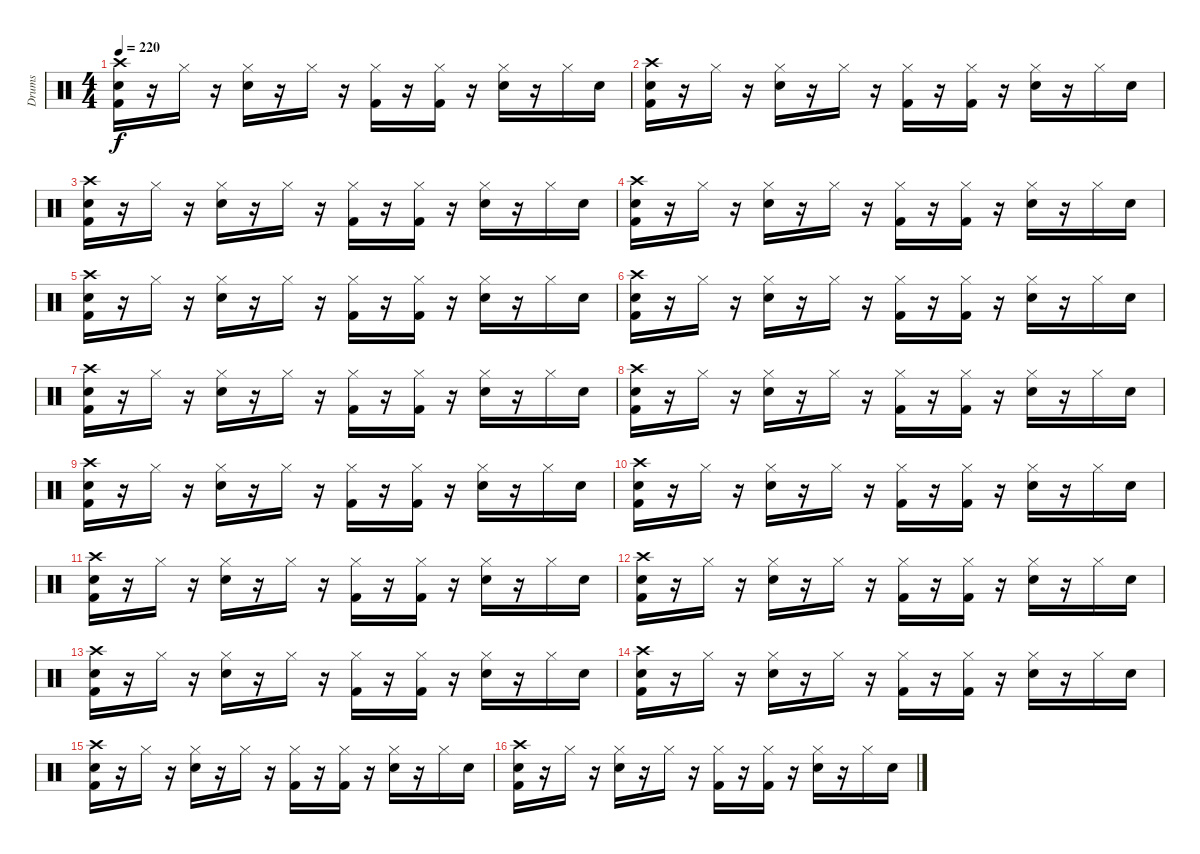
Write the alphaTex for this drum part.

\track ("Drums" "Drums") {instrument percussion}
\staff {score}
\articulation defaults
\ts (4 4)
\tempo 220
\clef neutral
\ks c
("Crash high (hit)" "Snare (hit) 2" "Kick (hit) 2").16{dy f} r.16 "Hi-Hat (closed)".16 r.16 ("Hi-Hat (closed)" "Snare (hit) 2").16 r.16 "Hi-Hat (closed)".16 r.16 ("Hi-Hat (closed)" "Kick (hit) 2").16 r.16 ("Hi-Hat (closed)" "Kick (hit) 2").16 r.16 ("Hi-Hat (closed)" "Snare (hit) 2").16 r.16 "Hi-Hat (closed)".16 "Snare (hit) 2".16 |
("Crash high (hit)" "Snare (hit) 2" "Kick (hit) 2").16 r.16 "Hi-Hat (closed)".16 r.16 ("Hi-Hat (closed)" "Snare (hit) 2").16 r.16 "Hi-Hat (closed)".16 r.16 ("Hi-Hat (closed)" "Kick (hit) 2").16 r.16 ("Hi-Hat (closed)" "Kick (hit) 2").16 r.16 ("Hi-Hat (closed)" "Snare (hit) 2").16 r.16 "Hi-Hat (closed)".16 "Snare (hit) 2".16 |
("Crash high (hit)" "Snare (hit) 2" "Kick (hit) 2").16 r.16 "Hi-Hat (closed)".16 r.16 ("Hi-Hat (closed)" "Snare (hit) 2").16 r.16 "Hi-Hat (closed)".16 r.16 ("Hi-Hat (closed)" "Kick (hit) 2").16 r.16 ("Hi-Hat (closed)" "Kick (hit) 2").16 r.16 ("Hi-Hat (closed)" "Snare (hit) 2").16 r.16 "Hi-Hat (closed)".16 "Snare (hit) 2".16 |
("Crash high (hit)" "Snare (hit) 2" "Kick (hit) 2").16 r.16 "Hi-Hat (closed)".16 r.16 ("Hi-Hat (closed)" "Snare (hit) 2").16 r.16 "Hi-Hat (closed)".16 r.16 ("Hi-Hat (closed)" "Kick (hit) 2").16 r.16 ("Hi-Hat (closed)" "Kick (hit) 2").16 r.16 ("Hi-Hat (closed)" "Snare (hit) 2").16 r.16 "Hi-Hat (closed)".16 "Snare (hit) 2".16 |
("Crash high (hit)" "Snare (hit) 2" "Kick (hit) 2").16 r.16 "Hi-Hat (closed)".16 r.16 ("Hi-Hat (closed)" "Snare (hit) 2").16 r.16 "Hi-Hat (closed)".16 r.16 ("Hi-Hat (closed)" "Kick (hit) 2").16 r.16 ("Hi-Hat (closed)" "Kick (hit) 2").16 r.16 ("Hi-Hat (closed)" "Snare (hit) 2").16 r.16 "Hi-Hat (closed)".16 "Snare (hit) 2".16 |
("Crash high (hit)" "Snare (hit) 2" "Kick (hit) 2").16 r.16 "Hi-Hat (closed)".16 r.16 ("Hi-Hat (closed)" "Snare (hit) 2").16 r.16 "Hi-Hat (closed)".16 r.16 ("Hi-Hat (closed)" "Kick (hit) 2").16 r.16 ("Hi-Hat (closed)" "Kick (hit) 2").16 r.16 ("Hi-Hat (closed)" "Snare (hit) 2").16 r.16 "Hi-Hat (closed)".16 "Snare (hit) 2".16 |
("Crash high (hit)" "Snare (hit) 2" "Kick (hit) 2").16 r.16 "Hi-Hat (closed)".16 r.16 ("Hi-Hat (closed)" "Snare (hit) 2").16 r.16 "Hi-Hat (closed)".16 r.16 ("Hi-Hat (closed)" "Kick (hit) 2").16 r.16 ("Hi-Hat (closed)" "Kick (hit) 2").16 r.16 ("Hi-Hat (closed)" "Snare (hit) 2").16 r.16 "Hi-Hat (closed)".16 "Snare (hit) 2".16 |
("Crash high (hit)" "Snare (hit) 2" "Kick (hit) 2").16 r.16 "Hi-Hat (closed)".16 r.16 ("Hi-Hat (closed)" "Snare (hit) 2").16 r.16 "Hi-Hat (closed)".16 r.16 ("Hi-Hat (closed)" "Kick (hit) 2").16 r.16 ("Hi-Hat (closed)" "Kick (hit) 2").16 r.16 ("Hi-Hat (closed)" "Snare (hit) 2").16 r.16 "Hi-Hat (closed)".16 "Snare (hit) 2".16 |
("Crash high (hit)" "Snare (hit) 2" "Kick (hit) 2").16 r.16 "Hi-Hat (closed)".16 r.16 ("Hi-Hat (closed)" "Snare (hit) 2").16 r.16 "Hi-Hat (closed)".16 r.16 ("Hi-Hat (closed)" "Kick (hit) 2").16 r.16 ("Hi-Hat (closed)" "Kick (hit) 2").16 r.16 ("Hi-Hat (closed)" "Snare (hit) 2").16 r.16 "Hi-Hat (closed)".16 "Snare (hit) 2".16 |
("Crash high (hit)" "Snare (hit) 2" "Kick (hit) 2").16 r.16 "Hi-Hat (closed)".16 r.16 ("Hi-Hat (closed)" "Snare (hit) 2").16 r.16 "Hi-Hat (closed)".16 r.16 ("Hi-Hat (closed)" "Kick (hit) 2").16 r.16 ("Hi-Hat (closed)" "Kick (hit) 2").16 r.16 ("Hi-Hat (closed)" "Snare (hit) 2").16 r.16 "Hi-Hat (closed)".16 "Snare (hit) 2".16 |
("Crash high (hit)" "Snare (hit) 2" "Kick (hit) 2").16 r.16 "Hi-Hat (closed)".16 r.16 ("Hi-Hat (closed)" "Snare (hit) 2").16 r.16 "Hi-Hat (closed)".16 r.16 ("Hi-Hat (closed)" "Kick (hit) 2").16 r.16 ("Hi-Hat (closed)" "Kick (hit) 2").16 r.16 ("Hi-Hat (closed)" "Snare (hit) 2").16 r.16 "Hi-Hat (closed)".16 "Snare (hit) 2".16 |
("Crash high (hit)" "Snare (hit) 2" "Kick (hit) 2").16 r.16 "Hi-Hat (closed)".16 r.16 ("Hi-Hat (closed)" "Snare (hit) 2").16 r.16 "Hi-Hat (closed)".16 r.16 ("Hi-Hat (closed)" "Kick (hit) 2").16 r.16 ("Hi-Hat (closed)" "Kick (hit) 2").16 r.16 ("Hi-Hat (closed)" "Snare (hit) 2").16 r.16 "Hi-Hat (closed)".16 "Snare (hit) 2".16 |
("Crash high (hit)" "Snare (hit) 2" "Kick (hit) 2").16 r.16 "Hi-Hat (closed)".16 r.16 ("Hi-Hat (closed)" "Snare (hit) 2").16 r.16 "Hi-Hat (closed)".16 r.16 ("Hi-Hat (closed)" "Kick (hit) 2").16 r.16 ("Hi-Hat (closed)" "Kick (hit) 2").16 r.16 ("Hi-Hat (closed)" "Snare (hit) 2").16 r.16 "Hi-Hat (closed)".16 "Snare (hit) 2".16 |
("Crash high (hit)" "Snare (hit) 2" "Kick (hit) 2").16 r.16 "Hi-Hat (closed)".16 r.16 ("Hi-Hat (closed)" "Snare (hit) 2").16 r.16 "Hi-Hat (closed)".16 r.16 ("Hi-Hat (closed)" "Kick (hit) 2").16 r.16 ("Hi-Hat (closed)" "Kick (hit) 2").16 r.16 ("Hi-Hat (closed)" "Snare (hit) 2").16 r.16 "Hi-Hat (closed)".16 "Snare (hit) 2".16 |
("Crash high (hit)" "Snare (hit) 2" "Kick (hit) 2").16 r.16 "Hi-Hat (closed)".16 r.16 ("Hi-Hat (closed)" "Snare (hit) 2").16 r.16 "Hi-Hat (closed)".16 r.16 ("Hi-Hat (closed)" "Kick (hit) 2").16 r.16 ("Hi-Hat (closed)" "Kick (hit) 2").16 r.16 ("Hi-Hat (closed)" "Snare (hit) 2").16 r.16 "Hi-Hat (closed)".16 "Snare (hit) 2".16 |
("Crash high (hit)" "Snare (hit) 2" "Kick (hit) 2").16 r.16 "Hi-Hat (closed)".16 r.16 ("Hi-Hat (closed)" "Snare (hit) 2").16 r.16 "Hi-Hat (closed)".16 r.16 ("Hi-Hat (closed)" "Kick (hit) 2").16 r.16 ("Hi-Hat (closed)" "Kick (hit) 2").16 r.16 ("Hi-Hat (closed)" "Snare (hit) 2").16 r.16 "Hi-Hat (closed)".16 "Snare (hit) 2".16
